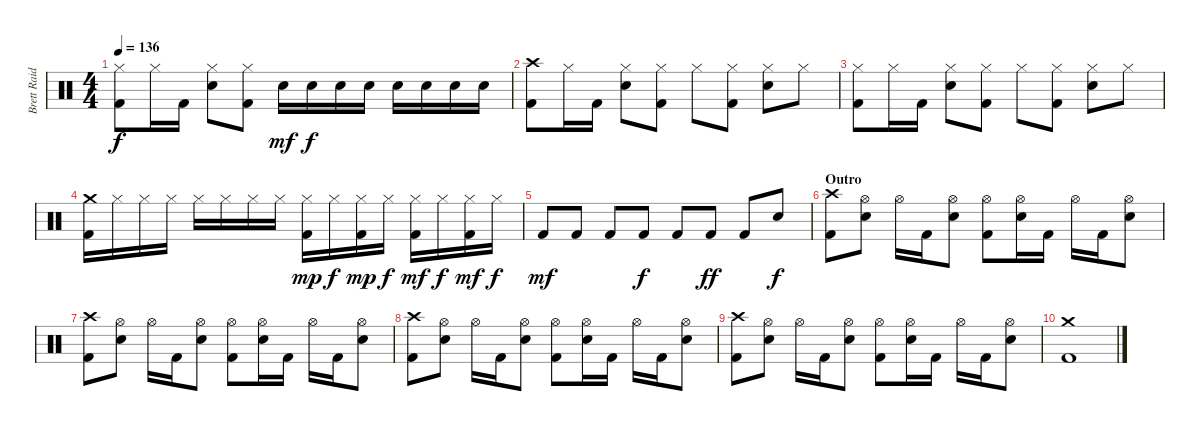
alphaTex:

\track ("Brett Raid (Drums)" "Brett Raid") {instrument percussion}
\staff {score}
\articulation defaults
\ts (4 4)
\tempo 136
\clef neutral
\ks c
("Hi-Hat (closed)" "Kick (hit) 2").8{dy f} "Hi-Hat (closed)".16 "Kick (hit) 2".16 ("Hi-Hat (closed)" "Electric Snare (hit)").8 ("Hi-Hat (closed)" "Kick (hit) 2").8 "Electric Snare (hit)".16{dy mf} "Electric Snare (hit)".16{dy f} "Electric Snare (hit)".16 "Electric Snare (hit)".16 "Electric Snare (hit)".16 "Electric Snare (hit)".16 "Electric Snare (hit)".16 "Electric Snare (hit)".16 |
("Crash high (hit)" "Kick (hit) 2").8 "Hi-Hat (closed)".16 "Kick (hit) 2".16 ("Hi-Hat (closed)" "Electric Snare (hit)").8 ("Hi-Hat (closed)" "Kick (hit) 2").8 "Hi-Hat (closed)".8 ("Hi-Hat (closed)" "Kick (hit) 2").8 ("Hi-Hat (closed)" "Electric Snare (hit)").8 "Hi-Hat (closed)".8 |
("Hi-Hat (closed)" "Kick (hit) 2").8 "Hi-Hat (closed)".16 "Kick (hit) 2".16 ("Hi-Hat (closed)" "Electric Snare (hit)").8 ("Hi-Hat (closed)" "Kick (hit) 2").8 "Hi-Hat (closed)".8 ("Hi-Hat (closed)" "Kick (hit) 2").8 ("Hi-Hat (closed)" "Electric Snare (hit)").8 "Hi-Hat (closed)".8 |
("Crash medium (hit)" "Kick (hit) 2").16 "Hi-Hat (closed)".16 "Hi-Hat (closed)".16 "Hi-Hat (closed)".16 "Hi-Hat (closed)".16 "Hi-Hat (closed)".16 "Hi-Hat (closed)".16 "Hi-Hat (closed)".16 ("Hi-Hat (closed)" "Kick (hit) 2").16{dy mp} "Hi-Hat (closed)".16{dy f} ("Hi-Hat (closed)" "Kick (hit) 2").16{dy mp} "Hi-Hat (closed)".16{dy f} ("Hi-Hat (closed)" "Kick (hit) 2").16{dy mf} "Hi-Hat (closed)".16{dy f} ("Hi-Hat (closed)" "Kick (hit) 2").16{dy mf} "Hi-Hat (closed)".16{dy f} |
"Kick (hit) 2".8{dy mf} "Kick (hit) 2".8 "Kick (hit) 2".8 "Kick (hit) 2".8{dy f} "Kick (hit) 2".8 "Kick (hit) 2".8{dy ff} "Kick (hit) 2".8 "Electric Snare (hit)".8{dy f} |
\section ("" "Outro")
("Crash high (hit)" "Kick (hit) 2").8 ("Hi-Hat (open)" "Electric Snare (hit)").8 "Hi-Hat (open)".16 "Kick (hit) 2".16 ("Hi-Hat (open)" "Electric Snare (hit)").8 ("Hi-Hat (open)" "Kick (hit) 2").8 ("Hi-Hat (open)" "Electric Snare (hit)").16 "Kick (hit) 2".16 "Hi-Hat (open)".16 "Kick (hit) 2".16 ("Hi-Hat (open)" "Electric Snare (hit)").8 |
("Crash high (hit)" "Kick (hit) 2").8 ("Hi-Hat (open)" "Electric Snare (hit)").8 "Hi-Hat (open)".16 "Kick (hit) 2".16 ("Hi-Hat (open)" "Electric Snare (hit)").8 ("Hi-Hat (open)" "Kick (hit) 2").8 ("Hi-Hat (open)" "Electric Snare (hit)").16 "Kick (hit) 2".16 "Hi-Hat (open)".16 "Kick (hit) 2".16 ("Hi-Hat (open)" "Electric Snare (hit)").8 |
("Crash high (hit)" "Kick (hit) 2").8 ("Hi-Hat (open)" "Electric Snare (hit)").8 "Hi-Hat (open)".16 "Kick (hit) 2".16 ("Hi-Hat (open)" "Electric Snare (hit)").8 ("Hi-Hat (open)" "Kick (hit) 2").8 ("Hi-Hat (open)" "Electric Snare (hit)").16 "Kick (hit) 2".16 "Hi-Hat (open)".16 "Kick (hit) 2".16 ("Hi-Hat (open)" "Electric Snare (hit)").8 |
("Crash high (hit)" "Kick (hit) 2").8 ("Hi-Hat (open)" "Electric Snare (hit)").8 "Hi-Hat (open)".16 "Kick (hit) 2".16 ("Hi-Hat (open)" "Electric Snare (hit)").8 ("Hi-Hat (open)" "Kick (hit) 2").8 ("Hi-Hat (open)" "Electric Snare (hit)").16 "Kick (hit) 2".16 "Hi-Hat (open)".16 "Kick (hit) 2".16 ("Hi-Hat (open)" "Electric Snare (hit)").8 |
("Crash medium (hit)" "Kick (hit) 2").1
